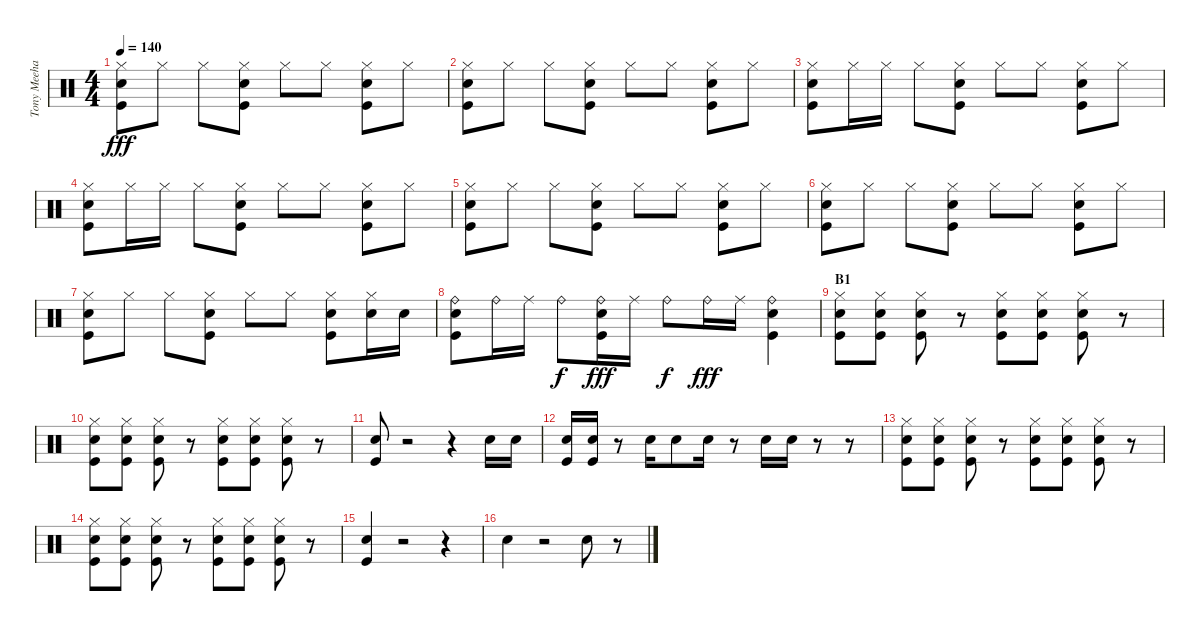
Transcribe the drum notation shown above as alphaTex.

\track ("Tony Meehan" "Tony Meeha") {instrument percussion}
\staff {score}
\articulation defaults
\ts (4 4)
\tempo 140
\clef neutral
\ks c
("Hi-Hat (closed)" "Electric Snare (hit)" "Kick (hit)").8{dy fff} "Hi-Hat (closed)".8 "Hi-Hat (closed)".8 ("Hi-Hat (closed)" "Electric Snare (hit)" "Kick (hit)").8 "Hi-Hat (closed)".8 "Hi-Hat (closed)".8 ("Hi-Hat (closed)" "Electric Snare (hit)" "Kick (hit)").8 "Hi-Hat (closed)".8 |
("Hi-Hat (closed)" "Electric Snare (hit)" "Kick (hit)").8 "Hi-Hat (closed)".8 "Hi-Hat (closed)".8 ("Hi-Hat (closed)" "Electric Snare (hit)" "Kick (hit)").8 "Hi-Hat (closed)".8 "Hi-Hat (closed)".8 ("Hi-Hat (closed)" "Electric Snare (hit)" "Kick (hit)").8 "Hi-Hat (closed)".8 |
("Hi-Hat (closed)" "Electric Snare (hit)" "Kick (hit)").8 "Hi-Hat (closed)".16 "Hi-Hat (closed)".16 "Hi-Hat (closed)".8 ("Hi-Hat (closed)" "Electric Snare (hit)" "Kick (hit)").8 "Hi-Hat (closed)".8 "Hi-Hat (closed)".8 ("Hi-Hat (closed)" "Electric Snare (hit)" "Kick (hit)").8 "Hi-Hat (closed)".8 |
("Hi-Hat (closed)" "Electric Snare (hit)" "Kick (hit)").8 "Hi-Hat (closed)".16 "Hi-Hat (closed)".16 "Hi-Hat (closed)".8 ("Hi-Hat (closed)" "Electric Snare (hit)" "Kick (hit)").8 "Hi-Hat (closed)".8 "Hi-Hat (closed)".8 ("Hi-Hat (closed)" "Electric Snare (hit)" "Kick (hit)").8 "Hi-Hat (closed)".8 |
("Hi-Hat (closed)" "Electric Snare (hit)" "Kick (hit)").8 "Hi-Hat (closed)".8 "Hi-Hat (closed)".8 ("Hi-Hat (closed)" "Electric Snare (hit)" "Kick (hit)").8 "Hi-Hat (closed)".8 "Hi-Hat (closed)".8 ("Hi-Hat (closed)" "Electric Snare (hit)" "Kick (hit)").8 "Hi-Hat (closed)".8 |
("Hi-Hat (closed)" "Electric Snare (hit)" "Kick (hit)").8 "Hi-Hat (closed)".8 "Hi-Hat (closed)".8 ("Hi-Hat (closed)" "Electric Snare (hit)" "Kick (hit)").8 "Hi-Hat (closed)".8 "Hi-Hat (closed)".8 ("Hi-Hat (closed)" "Electric Snare (hit)" "Kick (hit)").8 "Hi-Hat (closed)".8 |
("Hi-Hat (closed)" "Electric Snare (hit)" "Kick (hit)").8 "Hi-Hat (closed)".8 "Hi-Hat (closed)".8 ("Hi-Hat (closed)" "Electric Snare (hit)" "Kick (hit)").8 "Hi-Hat (closed)".8 "Hi-Hat (closed)".8 ("Hi-Hat (closed)" "Electric Snare (hit)" "Kick (hit)").8 ("Hi-Hat (closed)" "Electric Snare (hit)").16 "Electric Snare (hit)".16 |
("Ride (bell)" "Electric Snare (hit)" "Kick (hit)").8 "Ride (bell)".16 "Ride (middle)".16 "Ride (bell)".8{dy f} ("Ride (bell)" "Electric Snare (hit)" "Kick (hit)").16{dy fff} "Ride (middle)".16 "Ride (bell)".8{dy f} "Ride (bell)".16{dy fff} "Ride (middle)".16 ("Ride (bell)" "Electric Snare (hit)" "Kick (hit)").4 |
\section ("" "B1")
("Hi-Hat (closed)" "Electric Snare (hit)" "Kick (hit)").8 ("Hi-Hat (closed)" "Electric Snare (hit)" "Kick (hit)").8 ("Hi-Hat (closed)" "Electric Snare (hit)" "Kick (hit)").8 r.8 ("Hi-Hat (closed)" "Electric Snare (hit)" "Kick (hit)").8 ("Hi-Hat (closed)" "Electric Snare (hit)" "Kick (hit)").8 ("Hi-Hat (closed)" "Electric Snare (hit)" "Kick (hit)").8 r.8 |
("Hi-Hat (closed)" "Electric Snare (hit)" "Kick (hit)").8 ("Hi-Hat (closed)" "Electric Snare (hit)" "Kick (hit)").8 ("Hi-Hat (closed)" "Electric Snare (hit)" "Kick (hit)").8 r.8 ("Hi-Hat (closed)" "Electric Snare (hit)" "Kick (hit)").8 ("Hi-Hat (closed)" "Electric Snare (hit)" "Kick (hit)").8 ("Hi-Hat (closed)" "Electric Snare (hit)" "Kick (hit)").8 r.8 |
("Electric Snare (hit)" "Kick (hit)").8 r.2 r.4 "Electric Snare (hit)".16 "Electric Snare (hit)".16 |
("Electric Snare (hit)" "Kick (hit)").16 ("Electric Snare (hit)" "Kick (hit)").16 r.8 "Electric Snare (hit)".16 "Electric Snare (hit)".8 "Electric Snare (hit)".16 r.8 "Electric Snare (hit)".16 "Electric Snare (hit)".16 r.8 r.8 |
("Hi-Hat (closed)" "Electric Snare (hit)" "Kick (hit)").8 ("Hi-Hat (closed)" "Electric Snare (hit)" "Kick (hit)").8 ("Hi-Hat (closed)" "Electric Snare (hit)" "Kick (hit)").8 r.8 ("Hi-Hat (closed)" "Electric Snare (hit)" "Kick (hit)").8 ("Hi-Hat (closed)" "Electric Snare (hit)" "Kick (hit)").8 ("Hi-Hat (closed)" "Electric Snare (hit)" "Kick (hit)").8 r.8 |
("Hi-Hat (closed)" "Electric Snare (hit)" "Kick (hit)").8 ("Hi-Hat (closed)" "Electric Snare (hit)" "Kick (hit)").8 ("Hi-Hat (closed)" "Electric Snare (hit)" "Kick (hit)").8 r.8 ("Hi-Hat (closed)" "Electric Snare (hit)" "Kick (hit)").8 ("Hi-Hat (closed)" "Electric Snare (hit)" "Kick (hit)").8 ("Hi-Hat (closed)" "Electric Snare (hit)" "Kick (hit)").8 r.8 |
("Electric Snare (hit)" "Kick (hit)").4 r.2 r.4 |
"Electric Snare (hit)".4 r.2 "Electric Snare (hit)".8 r.8
